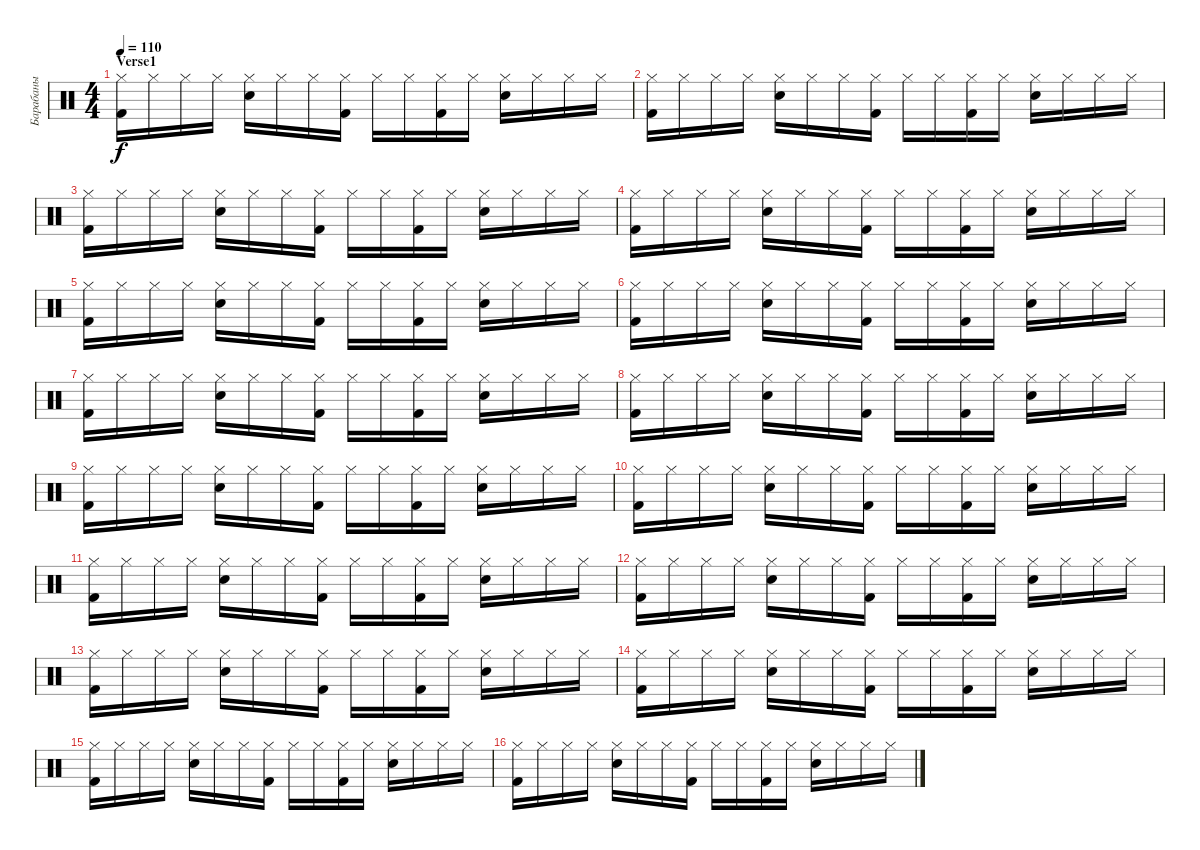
\track ("Барабаны" "Барабаны") {instrument percussion}
\staff {score}
\articulation defaults
\ts (4 4)
\section ("" "Verse1")
\tempo 110
\clef neutral
\ks c
("Hi-Hat (closed)" "Kick (hit) 2").16{dy f} "Hi-Hat (closed)".16 "Hi-Hat (closed)".16 "Hi-Hat (closed)".16 ("Hi-Hat (closed)" "Snare (hit) 2").16 "Hi-Hat (closed)".16 "Hi-Hat (closed)".16 ("Hi-Hat (closed)" "Kick (hit) 2").16 "Hi-Hat (closed)".16 "Hi-Hat (closed)".16 ("Hi-Hat (closed)" "Kick (hit) 2").16 "Hi-Hat (closed)".16 ("Hi-Hat (closed)" "Snare (hit) 2").16 "Hi-Hat (closed)".16 "Hi-Hat (closed)".16 "Hi-Hat (closed)".16 |
("Hi-Hat (closed)" "Kick (hit) 2").16 "Hi-Hat (closed)".16 "Hi-Hat (closed)".16 "Hi-Hat (closed)".16 ("Hi-Hat (closed)" "Snare (hit) 2").16 "Hi-Hat (closed)".16 "Hi-Hat (closed)".16 ("Hi-Hat (closed)" "Kick (hit) 2").16 "Hi-Hat (closed)".16 "Hi-Hat (closed)".16 ("Hi-Hat (closed)" "Kick (hit) 2").16 "Hi-Hat (closed)".16 ("Hi-Hat (closed)" "Snare (hit) 2").16 "Hi-Hat (closed)".16 "Hi-Hat (closed)".16 "Hi-Hat (closed)".16 |
("Hi-Hat (closed)" "Kick (hit) 2").16 "Hi-Hat (closed)".16 "Hi-Hat (closed)".16 "Hi-Hat (closed)".16 ("Hi-Hat (closed)" "Snare (hit) 2").16 "Hi-Hat (closed)".16 "Hi-Hat (closed)".16 ("Hi-Hat (closed)" "Kick (hit) 2").16 "Hi-Hat (closed)".16 "Hi-Hat (closed)".16 ("Hi-Hat (closed)" "Kick (hit) 2").16 "Hi-Hat (closed)".16 ("Hi-Hat (closed)" "Snare (hit) 2").16 "Hi-Hat (closed)".16 "Hi-Hat (closed)".16 "Hi-Hat (closed)".16 |
("Hi-Hat (closed)" "Kick (hit) 2").16 "Hi-Hat (closed)".16 "Hi-Hat (closed)".16 "Hi-Hat (closed)".16 ("Hi-Hat (closed)" "Snare (hit) 2").16 "Hi-Hat (closed)".16 "Hi-Hat (closed)".16 ("Hi-Hat (closed)" "Kick (hit) 2").16 "Hi-Hat (closed)".16 "Hi-Hat (closed)".16 ("Hi-Hat (closed)" "Kick (hit) 2").16 "Hi-Hat (closed)".16 ("Hi-Hat (closed)" "Snare (hit) 2").16 "Hi-Hat (closed)".16 "Hi-Hat (closed)".16 "Hi-Hat (closed)".16 |
("Hi-Hat (closed)" "Kick (hit) 2").16 "Hi-Hat (closed)".16 "Hi-Hat (closed)".16 "Hi-Hat (closed)".16 ("Hi-Hat (closed)" "Snare (hit) 2").16 "Hi-Hat (closed)".16 "Hi-Hat (closed)".16 ("Hi-Hat (closed)" "Kick (hit) 2").16 "Hi-Hat (closed)".16 "Hi-Hat (closed)".16 ("Hi-Hat (closed)" "Kick (hit) 2").16 "Hi-Hat (closed)".16 ("Hi-Hat (closed)" "Snare (hit) 2").16 "Hi-Hat (closed)".16 "Hi-Hat (closed)".16 "Hi-Hat (closed)".16 |
("Hi-Hat (closed)" "Kick (hit) 2").16 "Hi-Hat (closed)".16 "Hi-Hat (closed)".16 "Hi-Hat (closed)".16 ("Hi-Hat (closed)" "Snare (hit) 2").16 "Hi-Hat (closed)".16 "Hi-Hat (closed)".16 ("Hi-Hat (closed)" "Kick (hit) 2").16 "Hi-Hat (closed)".16 "Hi-Hat (closed)".16 ("Hi-Hat (closed)" "Kick (hit) 2").16 "Hi-Hat (closed)".16 ("Hi-Hat (closed)" "Snare (hit) 2").16 "Hi-Hat (closed)".16 "Hi-Hat (closed)".16 "Hi-Hat (closed)".16 |
("Hi-Hat (closed)" "Kick (hit) 2").16 "Hi-Hat (closed)".16 "Hi-Hat (closed)".16 "Hi-Hat (closed)".16 ("Hi-Hat (closed)" "Snare (hit) 2").16 "Hi-Hat (closed)".16 "Hi-Hat (closed)".16 ("Hi-Hat (closed)" "Kick (hit) 2").16 "Hi-Hat (closed)".16 "Hi-Hat (closed)".16 ("Hi-Hat (closed)" "Kick (hit) 2").16 "Hi-Hat (closed)".16 ("Hi-Hat (closed)" "Snare (hit) 2").16 "Hi-Hat (closed)".16 "Hi-Hat (closed)".16 "Hi-Hat (closed)".16 |
("Hi-Hat (closed)" "Kick (hit) 2").16 "Hi-Hat (closed)".16 "Hi-Hat (closed)".16 "Hi-Hat (closed)".16 ("Hi-Hat (closed)" "Snare (hit) 2").16 "Hi-Hat (closed)".16 "Hi-Hat (closed)".16 ("Hi-Hat (closed)" "Kick (hit) 2").16 "Hi-Hat (closed)".16 "Hi-Hat (closed)".16 ("Hi-Hat (closed)" "Kick (hit) 2").16 "Hi-Hat (closed)".16 ("Hi-Hat (closed)" "Snare (hit) 2").16 "Hi-Hat (closed)".16 "Hi-Hat (closed)".16 "Hi-Hat (closed)".16 |
("Hi-Hat (closed)" "Kick (hit) 2").16 "Hi-Hat (closed)".16 "Hi-Hat (closed)".16 "Hi-Hat (closed)".16 ("Hi-Hat (closed)" "Snare (hit) 2").16 "Hi-Hat (closed)".16 "Hi-Hat (closed)".16 ("Hi-Hat (closed)" "Kick (hit) 2").16 "Hi-Hat (closed)".16 "Hi-Hat (closed)".16 ("Hi-Hat (closed)" "Kick (hit) 2").16 "Hi-Hat (closed)".16 ("Hi-Hat (closed)" "Snare (hit) 2").16 "Hi-Hat (closed)".16 "Hi-Hat (closed)".16 "Hi-Hat (closed)".16 |
("Hi-Hat (closed)" "Kick (hit) 2").16 "Hi-Hat (closed)".16 "Hi-Hat (closed)".16 "Hi-Hat (closed)".16 ("Hi-Hat (closed)" "Snare (hit) 2").16 "Hi-Hat (closed)".16 "Hi-Hat (closed)".16 ("Hi-Hat (closed)" "Kick (hit) 2").16 "Hi-Hat (closed)".16 "Hi-Hat (closed)".16 ("Hi-Hat (closed)" "Kick (hit) 2").16 "Hi-Hat (closed)".16 ("Hi-Hat (closed)" "Snare (hit) 2").16 "Hi-Hat (closed)".16 "Hi-Hat (closed)".16 "Hi-Hat (closed)".16 |
("Hi-Hat (closed)" "Kick (hit) 2").16 "Hi-Hat (closed)".16 "Hi-Hat (closed)".16 "Hi-Hat (closed)".16 ("Hi-Hat (closed)" "Snare (hit) 2").16 "Hi-Hat (closed)".16 "Hi-Hat (closed)".16 ("Hi-Hat (closed)" "Kick (hit) 2").16 "Hi-Hat (closed)".16 "Hi-Hat (closed)".16 ("Hi-Hat (closed)" "Kick (hit) 2").16 "Hi-Hat (closed)".16 ("Hi-Hat (closed)" "Snare (hit) 2").16 "Hi-Hat (closed)".16 "Hi-Hat (closed)".16 "Hi-Hat (closed)".16 |
("Hi-Hat (closed)" "Kick (hit) 2").16 "Hi-Hat (closed)".16 "Hi-Hat (closed)".16 "Hi-Hat (closed)".16 ("Hi-Hat (closed)" "Snare (hit) 2").16 "Hi-Hat (closed)".16 "Hi-Hat (closed)".16 ("Hi-Hat (closed)" "Kick (hit) 2").16 "Hi-Hat (closed)".16 "Hi-Hat (closed)".16 ("Hi-Hat (closed)" "Kick (hit) 2").16 "Hi-Hat (closed)".16 ("Hi-Hat (closed)" "Snare (hit) 2").16 "Hi-Hat (closed)".16 "Hi-Hat (closed)".16 "Hi-Hat (closed)".16 |
("Hi-Hat (closed)" "Kick (hit) 2").16 "Hi-Hat (closed)".16 "Hi-Hat (closed)".16 "Hi-Hat (closed)".16 ("Hi-Hat (closed)" "Snare (hit) 2").16 "Hi-Hat (closed)".16 "Hi-Hat (closed)".16 ("Hi-Hat (closed)" "Kick (hit) 2").16 "Hi-Hat (closed)".16 "Hi-Hat (closed)".16 ("Hi-Hat (closed)" "Kick (hit) 2").16 "Hi-Hat (closed)".16 ("Hi-Hat (closed)" "Snare (hit) 2").16 "Hi-Hat (closed)".16 "Hi-Hat (closed)".16 "Hi-Hat (closed)".16 |
("Hi-Hat (closed)" "Kick (hit) 2").16 "Hi-Hat (closed)".16 "Hi-Hat (closed)".16 "Hi-Hat (closed)".16 ("Hi-Hat (closed)" "Snare (hit) 2").16 "Hi-Hat (closed)".16 "Hi-Hat (closed)".16 ("Hi-Hat (closed)" "Kick (hit) 2").16 "Hi-Hat (closed)".16 "Hi-Hat (closed)".16 ("Hi-Hat (closed)" "Kick (hit) 2").16 "Hi-Hat (closed)".16 ("Hi-Hat (closed)" "Snare (hit) 2").16 "Hi-Hat (closed)".16 "Hi-Hat (closed)".16 "Hi-Hat (closed)".16 |
("Hi-Hat (closed)" "Kick (hit) 2").16 "Hi-Hat (closed)".16 "Hi-Hat (closed)".16 "Hi-Hat (closed)".16 ("Hi-Hat (closed)" "Snare (hit) 2").16 "Hi-Hat (closed)".16 "Hi-Hat (closed)".16 ("Hi-Hat (closed)" "Kick (hit) 2").16 "Hi-Hat (closed)".16 "Hi-Hat (closed)".16 ("Hi-Hat (closed)" "Kick (hit) 2").16 "Hi-Hat (closed)".16 ("Hi-Hat (closed)" "Snare (hit) 2").16 "Hi-Hat (closed)".16 "Hi-Hat (closed)".16 "Hi-Hat (closed)".16 |
("Hi-Hat (closed)" "Kick (hit) 2").16 "Hi-Hat (closed)".16 "Hi-Hat (closed)".16 "Hi-Hat (closed)".16 ("Hi-Hat (closed)" "Snare (hit) 2").16 "Hi-Hat (closed)".16 "Hi-Hat (closed)".16 ("Hi-Hat (closed)" "Kick (hit) 2").16 "Hi-Hat (closed)".16 "Hi-Hat (closed)".16 ("Hi-Hat (closed)" "Kick (hit) 2").16 "Hi-Hat (closed)".16 ("Hi-Hat (closed)" "Snare (hit) 2").16 "Hi-Hat (closed)".16 "Hi-Hat (closed)".16 "Hi-Hat (closed)".16
